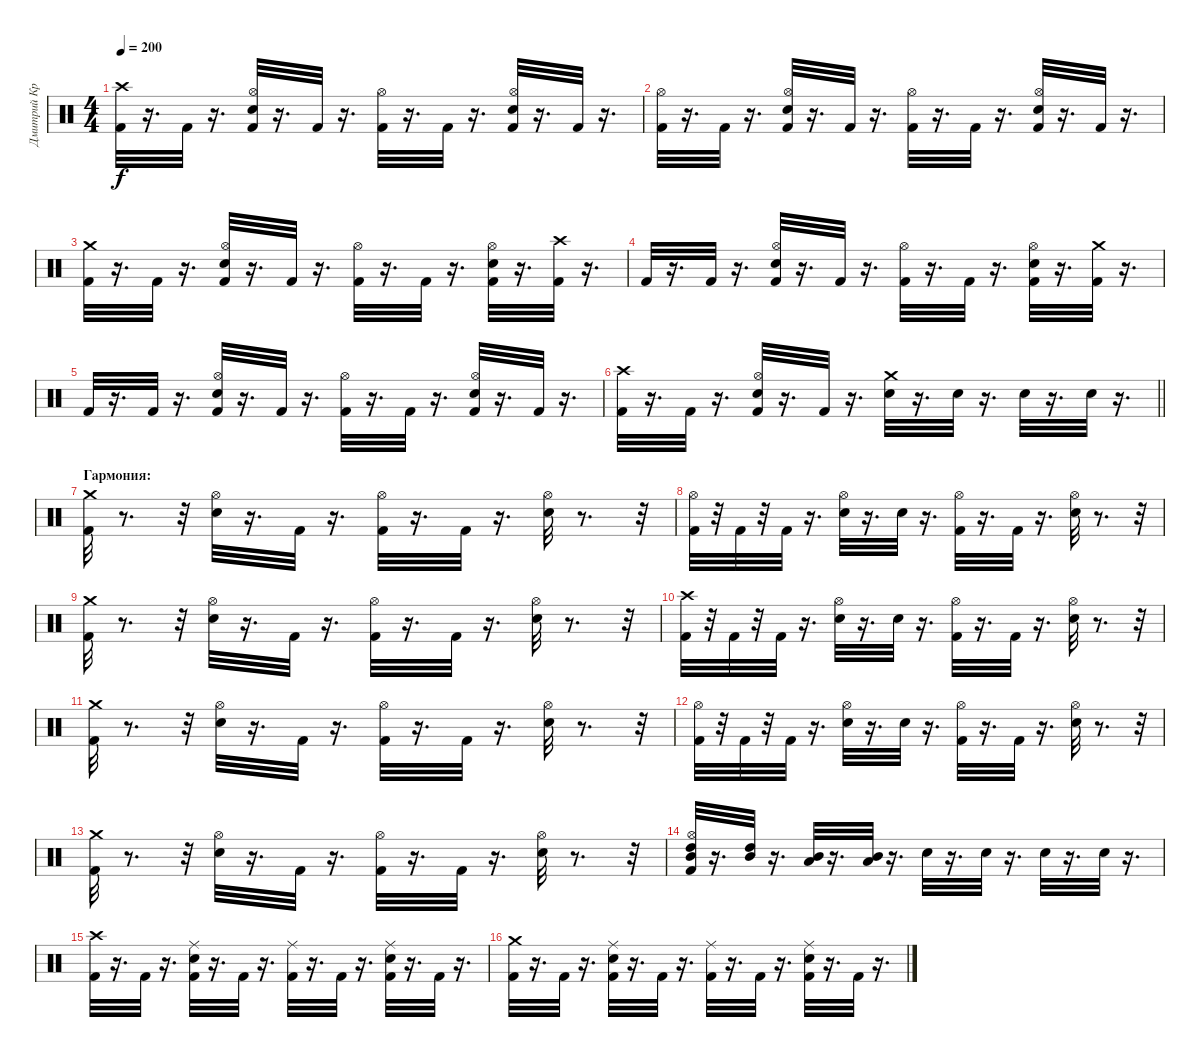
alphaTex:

\track ("Дмитрий Кривенков" "Дмитрий Кр") {instrument percussion}
\staff {score}
\articulation defaults
\ts (4 4)
\tempo 200
\clef neutral
\ks c
("Kick (hit) 2" "Crash high (hit)").32{dy f} r.16{d} "Kick (hit) 2".32 r.16{d} ("Hi-Hat (open)" "Kick (hit) 2" "Electric Snare (hit)").32 r.16{d} "Kick (hit) 2".32 r.16{d} ("Hi-Hat (open)" "Kick (hit) 2").32 r.16{d} "Kick (hit) 2".32 r.16{d} ("Hi-Hat (open)" "Kick (hit) 2" "Electric Snare (hit)").32 r.16{d} "Kick (hit) 2".32 r.16{d} |
("Hi-Hat (open)" "Kick (hit) 2").32 r.16{d} "Kick (hit) 2".32 r.16{d} ("Hi-Hat (open)" "Electric Snare (hit)" "Kick (hit) 2").32 r.16{d} "Kick (hit) 2".32 r.16{d} ("Hi-Hat (open)" "Kick (hit) 2").32 r.16{d} "Kick (hit) 2".32 r.16{d} ("Hi-Hat (open)" "Electric Snare (hit)" "Kick (hit) 2").32 r.16{d} "Kick (hit) 2".32 r.16{d} |
("Kick (hit) 2" "Crash medium (hit)").32 r.16{d} "Kick (hit) 2".32 r.16{d} ("Kick (hit) 2" "Electric Snare (hit)" "Hi-Hat (open)").32 r.16{d} "Kick (hit) 2".32 r.16{d} ("Kick (hit) 2" "Hi-Hat (open)").32 r.16{d} "Kick (hit) 2".32 r.16{d} ("Kick (hit) 2" "Electric Snare (hit)" "Hi-Hat (open)").32 r.16{d} ("Kick (hit) 2" "Crash high (hit)").32 r.16{d} |
"Kick (hit) 2".32 r.16{d} "Kick (hit) 2".32 r.16{d} ("Hi-Hat (open)" "Kick (hit) 2" "Electric Snare (hit)").32 r.16{d} "Kick (hit) 2".32 r.16{d} ("Hi-Hat (open)" "Kick (hit) 2").32 r.16{d} "Kick (hit) 2".32 r.16{d} ("Hi-Hat (open)" "Electric Snare (hit)" "Kick (hit) 2").32 r.16{d} ("Crash medium (hit)" "Kick (hit) 2").32 r.16{d} |
"Kick (hit) 2".32 r.16{d} "Kick (hit) 2".32 r.16{d} ("Hi-Hat (open)" "Kick (hit) 2" "Electric Snare (hit)").32 r.16{d} "Kick (hit) 2".32 r.16{d} ("Hi-Hat (open)" "Kick (hit) 2").32 r.16{d} "Kick (hit) 2".32 r.16{d} ("Hi-Hat (open)" "Electric Snare (hit)" "Kick (hit) 2").32 r.16{d} "Kick (hit) 2".32 r.16{d} |
\barLineRight lightlight
("Crash high (hit)" "Kick (hit) 2").32 r.16{d} "Kick (hit) 2".32 r.16{d} ("Electric Snare (hit)" "Kick (hit) 2" "Hi-Hat (open)").32 r.16{d} "Kick (hit) 2".32 r.16{d} ("Electric Snare (hit)" "Crash medium (hit)").32 r.16{d} "Electric Snare (hit)".32 r.16{d} "Electric Snare (hit)".32 r.16{d} "Electric Snare (hit)".32 r.16{d} |
\section ("" "Гармония:")
("Crash medium (hit)" "Kick (hit) 2").32 r.8{d} r.32 ("Hi-Hat (open)" "Electric Snare (hit)").32 r.16{d} "Kick (hit) 2".32 r.16{d} ("Hi-Hat (open)" "Kick (hit) 2").32 r.16{d} "Kick (hit) 2".32 r.16{d} ("Hi-Hat (open)" "Electric Snare (hit)").32 r.8{d} r.32 |
("Hi-Hat (open)" "Kick (hit) 2").32 r.32 "Kick (hit) 2".32 r.32 "Kick (hit) 2".32 r.16{d} ("Hi-Hat (open)" "Electric Snare (hit)").32 r.16{d} "Electric Snare (hit)".32 r.16{d} ("Hi-Hat (open)" "Kick (hit) 2").32 r.16{d} "Kick (hit) 2".32 r.16{d} ("Hi-Hat (open)" "Electric Snare (hit)").32 r.8{d} r.32 |
("Crash medium (hit)" "Kick (hit) 2").32 r.8{d} r.32 ("Hi-Hat (open)" "Electric Snare (hit)").32 r.16{d} "Kick (hit) 2".32 r.16{d} ("Hi-Hat (open)" "Kick (hit) 2").32 r.16{d} "Kick (hit) 2".32 r.16{d} ("Hi-Hat (open)" "Electric Snare (hit)").32 r.8{d} r.32 |
("Crash high (hit)" "Kick (hit) 2").32 r.32 "Kick (hit) 2".32 r.32 "Kick (hit) 2".32 r.16{d} ("Hi-Hat (open)" "Electric Snare (hit)").32 r.16{d} "Electric Snare (hit)".32 r.16{d} ("Hi-Hat (open)" "Kick (hit) 2").32 r.16{d} "Kick (hit) 2".32 r.16{d} ("Hi-Hat (open)" "Electric Snare (hit)").32 r.8{d} r.32 |
("Crash medium (hit)" "Kick (hit) 2").32 r.8{d} r.32 ("Hi-Hat (open)" "Electric Snare (hit)").32 r.16{d} "Kick (hit) 2".32 r.16{d} ("Hi-Hat (open)" "Kick (hit) 2").32 r.16{d} "Kick (hit) 2".32 r.16{d} ("Hi-Hat (open)" "Electric Snare (hit)").32 r.8{d} r.32 |
("Hi-Hat (open)" "Kick (hit) 2").32 r.32 "Kick (hit) 2".32 r.32 "Kick (hit) 2".32 r.16{d} ("Hi-Hat (open)" "Electric Snare (hit)").32 r.16{d} "Electric Snare (hit)".32 r.16{d} ("Hi-Hat (open)" "Kick (hit) 2").32 r.16{d} "Kick (hit) 2".32 r.16{d} ("Hi-Hat (open)" "Electric Snare (hit)").32 r.8{d} r.32 |
("Crash medium (hit)" "Kick (hit) 2").32 r.8{d} r.32 ("Hi-Hat (open)" "Electric Snare (hit)").32 r.16{d} "Kick (hit) 2".32 r.16{d} ("Hi-Hat (open)" "Kick (hit) 2").32 r.16{d} "Kick (hit) 2".32 r.16{d} ("Hi-Hat (open)" "Electric Snare (hit)").32 r.8{d} r.32 |
("Mid Tom (hit)" "High Tom (hit)" "Hi-Hat (open)" "Kick (hit) 2").32 r.16{d} ("Mid Tom (hit)" "High Tom (hit)").32 r.16{d} ("Low Tom (hit)" "Mid Tom (hit)").32 r.16{d} ("Low Tom (hit)" "Mid Tom (hit)").32 r.16{d} "Electric Snare (hit)".32 r.16{d} "Electric Snare (hit)".32 r.16{d} "Electric Snare (hit)".32 r.16{d} "Electric Snare (hit)".32 r.16{d} |
("Crash high (hit)" "Kick (hit) 2").32 r.16{d} "Kick (hit) 2".32 r.16{d} ("Ride (middle)" "Electric Snare (hit)" "Kick (hit) 2").32 r.16{d} "Kick (hit) 2".32 r.16{d} ("Ride (middle)" "Kick (hit) 2").32 r.16{d} "Kick (hit) 2".32 r.16{d} ("Ride (middle)" "Kick (hit) 2" "Electric Snare (hit)").32 r.16{d} "Kick (hit) 2".32 r.16{d} |
("Crash medium (hit)" "Kick (hit) 2").32 r.16{d} "Kick (hit) 2".32 r.16{d} ("Electric Snare (hit)" "Kick (hit) 2" "Ride (middle)").32 r.16{d} "Kick (hit) 2".32 r.16{d} ("Ride (middle)" "Kick (hit) 2").32 r.16{d} "Kick (hit) 2".32 r.16{d} ("Ride (middle)" "Kick (hit) 2" "Electric Snare (hit)").32 r.16{d} "Kick (hit) 2".32 r.16{d}
